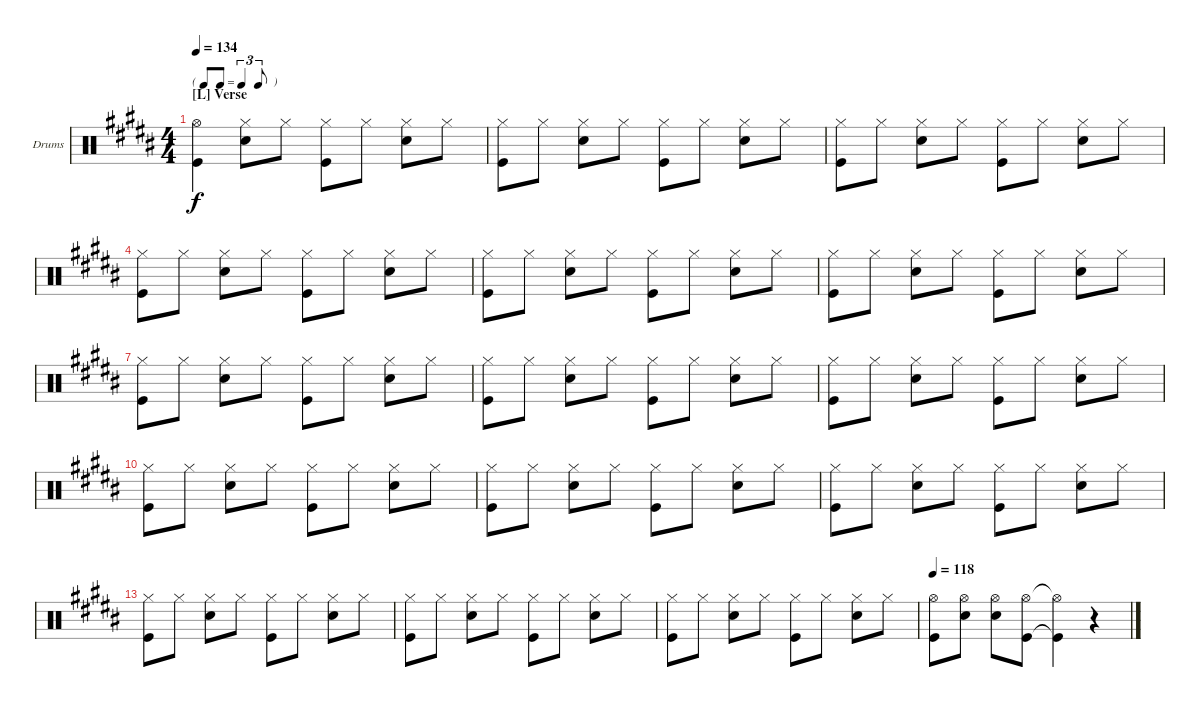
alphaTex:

\bracketExtendMode nobrackets
\firstSystemTrackNameOrientation horizontal
\otherSystemsTrackNameOrientation horizontal
\defaultBarNumberDisplay FirstOfSystem
\track ("Drumkit" "Drums") {instrument percussion}
\staff {score}
\articulation defaults
\ts (4 4)
\tf triplet8th
\section ("L" "Verse")
\tempo 134
\clef neutral
\ks b
("Hi-Hat (open)" "Kick (hit)").4{dy f} ("Hi-Hat (closed)" "Snare (hit) 2").8 "Hi-Hat (closed)".8 ("Hi-Hat (closed)" "Kick (hit)").8 "Hi-Hat (closed)".8 ("Hi-Hat (closed)" "Snare (hit) 2").8 "Hi-Hat (closed)".8 |
("Hi-Hat (closed)" "Kick (hit)").8 "Hi-Hat (closed)".8 ("Hi-Hat (closed)" "Snare (hit) 2").8 "Hi-Hat (closed)".8 ("Hi-Hat (closed)" "Kick (hit)").8 "Hi-Hat (closed)".8 ("Hi-Hat (closed)" "Snare (hit) 2").8 "Hi-Hat (closed)".8 |
("Hi-Hat (closed)" "Kick (hit)").8 "Hi-Hat (closed)".8 ("Hi-Hat (closed)" "Snare (hit) 2").8 "Hi-Hat (closed)".8 ("Hi-Hat (closed)" "Kick (hit)").8 "Hi-Hat (closed)".8 ("Hi-Hat (closed)" "Snare (hit) 2").8 "Hi-Hat (closed)".8 |
("Hi-Hat (closed)" "Kick (hit)").8 "Hi-Hat (closed)".8 ("Hi-Hat (closed)" "Snare (hit) 2").8 "Hi-Hat (closed)".8 ("Hi-Hat (closed)" "Kick (hit)").8 "Hi-Hat (closed)".8 ("Hi-Hat (closed)" "Snare (hit) 2").8 "Hi-Hat (closed)".8 |
("Hi-Hat (closed)" "Kick (hit)").8 "Hi-Hat (closed)".8 ("Hi-Hat (closed)" "Snare (hit) 2").8 "Hi-Hat (closed)".8 ("Hi-Hat (closed)" "Kick (hit)").8 "Hi-Hat (closed)".8 ("Hi-Hat (closed)" "Snare (hit) 2").8 "Hi-Hat (closed)".8 |
("Hi-Hat (closed)" "Kick (hit)").8 "Hi-Hat (closed)".8 ("Hi-Hat (closed)" "Snare (hit) 2").8 "Hi-Hat (closed)".8 ("Hi-Hat (closed)" "Kick (hit)").8 "Hi-Hat (closed)".8 ("Hi-Hat (closed)" "Snare (hit) 2").8 "Hi-Hat (closed)".8 |
("Hi-Hat (closed)" "Kick (hit)").8 "Hi-Hat (closed)".8 ("Hi-Hat (closed)" "Snare (hit) 2").8 "Hi-Hat (closed)".8 ("Hi-Hat (closed)" "Kick (hit)").8 "Hi-Hat (closed)".8 ("Hi-Hat (closed)" "Snare (hit) 2").8 "Hi-Hat (closed)".8 |
("Hi-Hat (closed)" "Kick (hit)").8 "Hi-Hat (closed)".8 ("Hi-Hat (closed)" "Snare (hit) 2").8 "Hi-Hat (closed)".8 ("Hi-Hat (closed)" "Kick (hit)").8 "Hi-Hat (closed)".8 ("Hi-Hat (closed)" "Snare (hit) 2").8 "Hi-Hat (closed)".8 |
("Hi-Hat (closed)" "Kick (hit)").8 "Hi-Hat (closed)".8 ("Hi-Hat (closed)" "Snare (hit) 2").8 "Hi-Hat (closed)".8 ("Hi-Hat (closed)" "Kick (hit)").8 "Hi-Hat (closed)".8 ("Hi-Hat (closed)" "Snare (hit) 2").8 "Hi-Hat (closed)".8 |
("Hi-Hat (closed)" "Kick (hit)").8 "Hi-Hat (closed)".8 ("Hi-Hat (closed)" "Snare (hit) 2").8 "Hi-Hat (closed)".8 ("Hi-Hat (closed)" "Kick (hit)").8 "Hi-Hat (closed)".8 ("Hi-Hat (closed)" "Snare (hit) 2").8 "Hi-Hat (closed)".8 |
("Hi-Hat (closed)" "Kick (hit)").8 "Hi-Hat (closed)".8 ("Hi-Hat (closed)" "Snare (hit) 2").8 "Hi-Hat (closed)".8 ("Hi-Hat (closed)" "Kick (hit)").8 "Hi-Hat (closed)".8 ("Hi-Hat (closed)" "Snare (hit) 2").8 "Hi-Hat (closed)".8 |
("Hi-Hat (closed)" "Kick (hit)").8 "Hi-Hat (closed)".8 ("Hi-Hat (closed)" "Snare (hit) 2").8 "Hi-Hat (closed)".8 ("Hi-Hat (closed)" "Kick (hit)").8 "Hi-Hat (closed)".8 ("Hi-Hat (closed)" "Snare (hit) 2").8 "Hi-Hat (closed)".8 |
("Hi-Hat (closed)" "Kick (hit)").8 "Hi-Hat (closed)".8 ("Hi-Hat (closed)" "Snare (hit) 2").8 "Hi-Hat (closed)".8 ("Hi-Hat (closed)" "Kick (hit)").8 "Hi-Hat (closed)".8 ("Hi-Hat (closed)" "Snare (hit) 2").8 "Hi-Hat (closed)".8 |
("Hi-Hat (closed)" "Kick (hit)").8 "Hi-Hat (closed)".8 ("Hi-Hat (closed)" "Snare (hit) 2").8 "Hi-Hat (closed)".8 ("Hi-Hat (closed)" "Kick (hit)").8 "Hi-Hat (closed)".8 ("Hi-Hat (closed)" "Snare (hit) 2").8 "Hi-Hat (closed)".8 |
("Hi-Hat (closed)" "Kick (hit)").8 "Hi-Hat (closed)".8 ("Hi-Hat (closed)" "Snare (hit) 2").8 "Hi-Hat (closed)".8 ("Hi-Hat (closed)" "Kick (hit)").8 "Hi-Hat (closed)".8 ("Hi-Hat (closed)" "Snare (hit) 2").8 "Hi-Hat (closed)".8 |
\tempo 118
("Hi-Hat (open)" "Kick (hit)").8 ("Hi-Hat (open)" "Snare (hit) 2").8 ("Hi-Hat (open)" "Snare (hit) 2").8 ("Hi-Hat (open)" "Kick (hit)").8 ("Hi-Hat (open)"{t} "Kick (hit)"{t}).4 r.4
